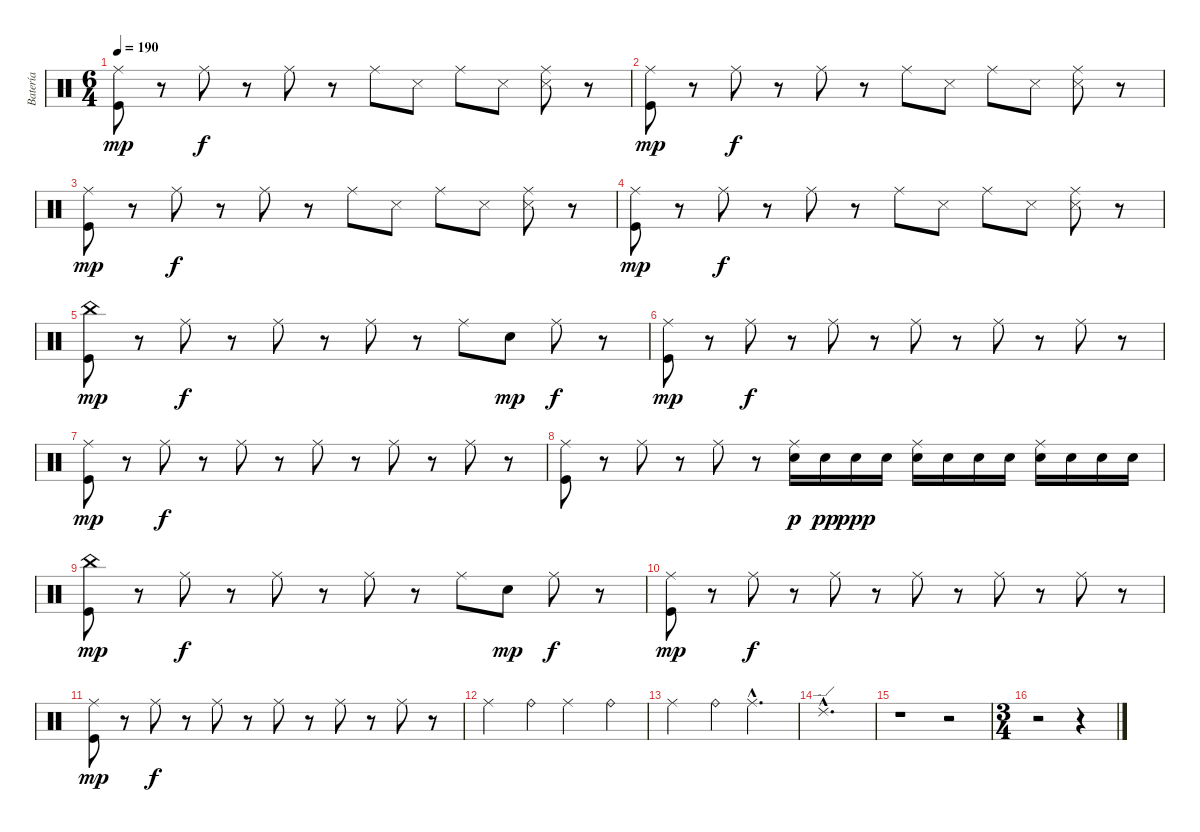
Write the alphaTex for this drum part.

\track ("Batería" "Batería") {instrument percussion}
\staff {score}
\articulation defaults
\ts (6 4)
\tempo 190
\clef neutral
\ks c
("Ride (middle)" "Kick (hit)").8{dy mp} r.8 "Ride (middle)".8{dy f} r.8 "Ride (middle)".8 r.8 "Ride (middle)".8 "Snare (side stick) 3".8 "Ride (middle)".8 "Snare (side stick) 3".8 ("Ride (middle)" "Snare (side stick) 3").8 r.8 |
("Ride (middle)" "Kick (hit)").8{dy mp} r.8 "Ride (middle)".8{dy f} r.8 "Ride (middle)".8 r.8 "Ride (middle)".8 "Snare (side stick) 3".8 "Ride (middle)".8 "Snare (side stick) 3".8 ("Ride (middle)" "Snare (side stick) 3").8 r.8 |
("Ride (middle)" "Kick (hit)").8{dy mp} r.8 "Ride (middle)".8{dy f} r.8 "Ride (middle)".8 r.8 "Ride (middle)".8 "Snare (side stick) 3".8 "Ride (middle)".8 "Snare (side stick) 3".8 ("Ride (middle)" "Snare (side stick) 3").8 r.8 |
("Ride (middle)" "Kick (hit)").8{dy mp} r.8 "Ride (middle)".8{dy f} r.8 "Ride (middle)".8 r.8 "Ride (middle)".8 "Snare (side stick) 3".8 "Ride (middle)".8 "Snare (side stick) 3".8 ("Ride (middle)" "Snare (side stick) 3").8 r.8 |
("China (hit)" "Kick (hit)").8{dy mp} r.8 "Ride (middle)".8{dy f} r.8 "Ride (middle)".8 r.8 "Ride (middle)".8 r.8 "Ride (middle)".8 "Snare (hit) 2".8{dy mp} "Ride (middle)".8{dy f} r.8 |
("Ride (middle)" "Kick (hit)").8{dy mp} r.8 "Ride (middle)".8{dy f} r.8 "Ride (middle)".8 r.8 "Ride (middle)".8 r.8 "Ride (middle)".8 r.8 "Ride (middle)".8 r.8 |
("Ride (middle)" "Kick (hit)").8{dy mp} r.8 "Ride (middle)".8{dy f} r.8 "Ride (middle)".8 r.8 "Ride (middle)".8 r.8 "Ride (middle)".8 r.8 "Ride (middle)".8 r.8 |
("Ride (middle)" "Kick (hit)").8 r.8 "Ride (middle)".8 r.8 "Ride (middle)".8 r.8 ("Snare (hit) 2" "Ride (middle)").16{dy p} "Snare (hit) 2".16{dy pp} "Snare (hit) 2".16{dy ppp} "Snare (hit) 2".16 ("Snare (hit) 2" "Ride (middle)").16 "Snare (hit) 2".16 "Snare (hit) 2".16 "Snare (hit) 2".16 ("Snare (hit) 2" "Ride (middle)").16 "Snare (hit) 2".16 "Snare (hit) 2".16 "Snare (hit) 2".16 |
("China (hit)" "Kick (hit)").8{dy mp} r.8 "Ride (middle)".8{dy f} r.8 "Ride (middle)".8 r.8 "Ride (middle)".8 r.8 "Ride (middle)".8 "Snare (hit) 2".8{dy mp} "Ride (middle)".8{dy f} r.8 |
("Ride (middle)" "Kick (hit)").8{dy mp} r.8 "Ride (middle)".8{dy f} r.8 "Ride (middle)".8 r.8 "Ride (middle)".8 r.8 "Ride (middle)".8 r.8 "Ride (middle)".8 r.8 |
("Ride (middle)" "Kick (hit)").8{dy mp} r.8 "Ride (middle)".8{dy f} r.8 "Ride (middle)".8 r.8 "Ride (middle)".8 r.8 "Ride (middle)".8 r.8 "Ride (middle)".8 r.8 |
"Ride (middle)".2 "Ride (bell)".4 "Ride (middle)".2 "Ride (bell)".4 |
"Ride (middle)".2 "Ride (bell)".4 "Ride (middle)"{hac}.2{d} |
"Ride (edge) 2"{hac}.1{d} |
r.1 r.2 |
\ts (3 4)
r.2 r.4
